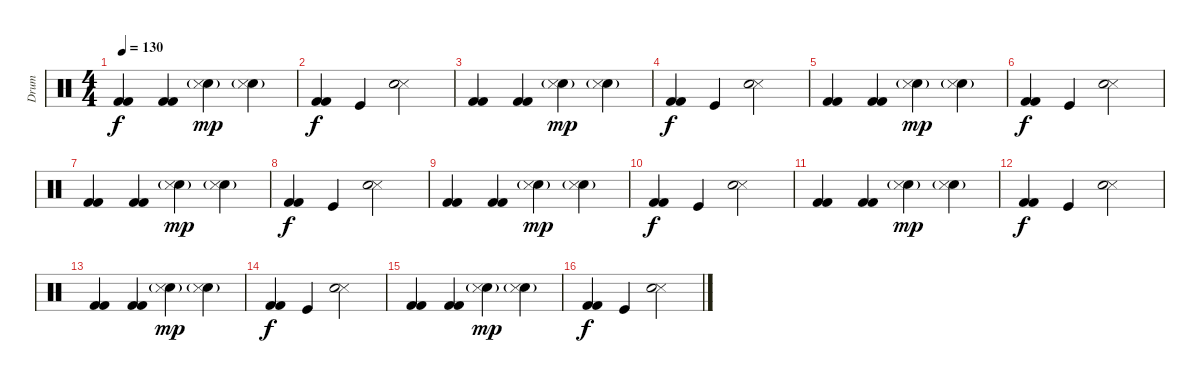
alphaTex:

\track ("Drum" "Drum") {instrument percussion}
\staff {score}
\articulation defaults
\ts (4 4)
\tempo 130
\clef neutral
\ks c
("Kick (hit) 2" "Kick (hit) 2").4{dy f} ("Kick (hit) 2" "Kick (hit) 2").4 ("Snare (hit) 2" "Snare (side stick) 3"{g}).4{dy mp} ("Snare (hit) 2"{g} "Snare (side stick) 3").4 |
("Kick (hit) 2" "Kick (hit) 2").4{dy f} "Kick (hit)".4 ("Snare (side stick) 3" "Snare (hit) 2").2 |
("Kick (hit) 2" "Kick (hit) 2").4 ("Kick (hit) 2" "Kick (hit) 2").4 ("Snare (hit) 2" "Snare (side stick) 3"{g}).4{dy mp} ("Snare (hit) 2"{g} "Snare (side stick) 3").4 |
("Kick (hit) 2" "Kick (hit) 2").4{dy f} "Kick (hit)".4 ("Snare (side stick) 3" "Snare (hit) 2").2 |
("Kick (hit) 2" "Kick (hit) 2").4 ("Kick (hit) 2" "Kick (hit) 2").4 ("Snare (hit) 2" "Snare (side stick) 3"{g}).4{dy mp} ("Snare (hit) 2"{g} "Snare (side stick) 3").4 |
("Kick (hit) 2" "Kick (hit) 2").4{dy f} "Kick (hit)".4 ("Snare (side stick) 3" "Snare (hit) 2").2 |
("Kick (hit) 2" "Kick (hit) 2").4 ("Kick (hit) 2" "Kick (hit) 2").4 ("Snare (hit) 2" "Snare (side stick) 3"{g}).4{dy mp} ("Snare (hit) 2"{g} "Snare (side stick) 3").4 |
("Kick (hit) 2" "Kick (hit) 2").4{dy f} "Kick (hit)".4 ("Snare (side stick) 3" "Snare (hit) 2").2 |
("Kick (hit) 2" "Kick (hit) 2").4 ("Kick (hit) 2" "Kick (hit) 2").4 ("Snare (hit) 2" "Snare (side stick) 3"{g}).4{dy mp} ("Snare (hit) 2"{g} "Snare (side stick) 3").4 |
("Kick (hit) 2" "Kick (hit) 2").4{dy f} "Kick (hit)".4 ("Snare (side stick) 3" "Snare (hit) 2").2 |
("Kick (hit) 2" "Kick (hit) 2").4 ("Kick (hit) 2" "Kick (hit) 2").4 ("Snare (hit) 2" "Snare (side stick) 3"{g}).4{dy mp} ("Snare (hit) 2"{g} "Snare (side stick) 3").4 |
("Kick (hit) 2" "Kick (hit) 2").4{dy f} "Kick (hit)".4 ("Snare (side stick) 3" "Snare (hit) 2").2 |
("Kick (hit) 2" "Kick (hit) 2").4 ("Kick (hit) 2" "Kick (hit) 2").4 ("Snare (hit) 2" "Snare (side stick) 3"{g}).4{dy mp} ("Snare (hit) 2"{g} "Snare (side stick) 3").4 |
("Kick (hit) 2" "Kick (hit) 2").4{dy f} "Kick (hit)".4 ("Snare (side stick) 3" "Snare (hit) 2").2 |
("Kick (hit) 2" "Kick (hit) 2").4 ("Kick (hit) 2" "Kick (hit) 2").4 ("Snare (hit) 2" "Snare (side stick) 3"{g}).4{dy mp} ("Snare (hit) 2"{g} "Snare (side stick) 3").4 |
\section ("" "")
("Kick (hit) 2" "Kick (hit) 2").4{dy f} "Kick (hit)".4 ("Snare (side stick) 3" "Snare (hit) 2").2
